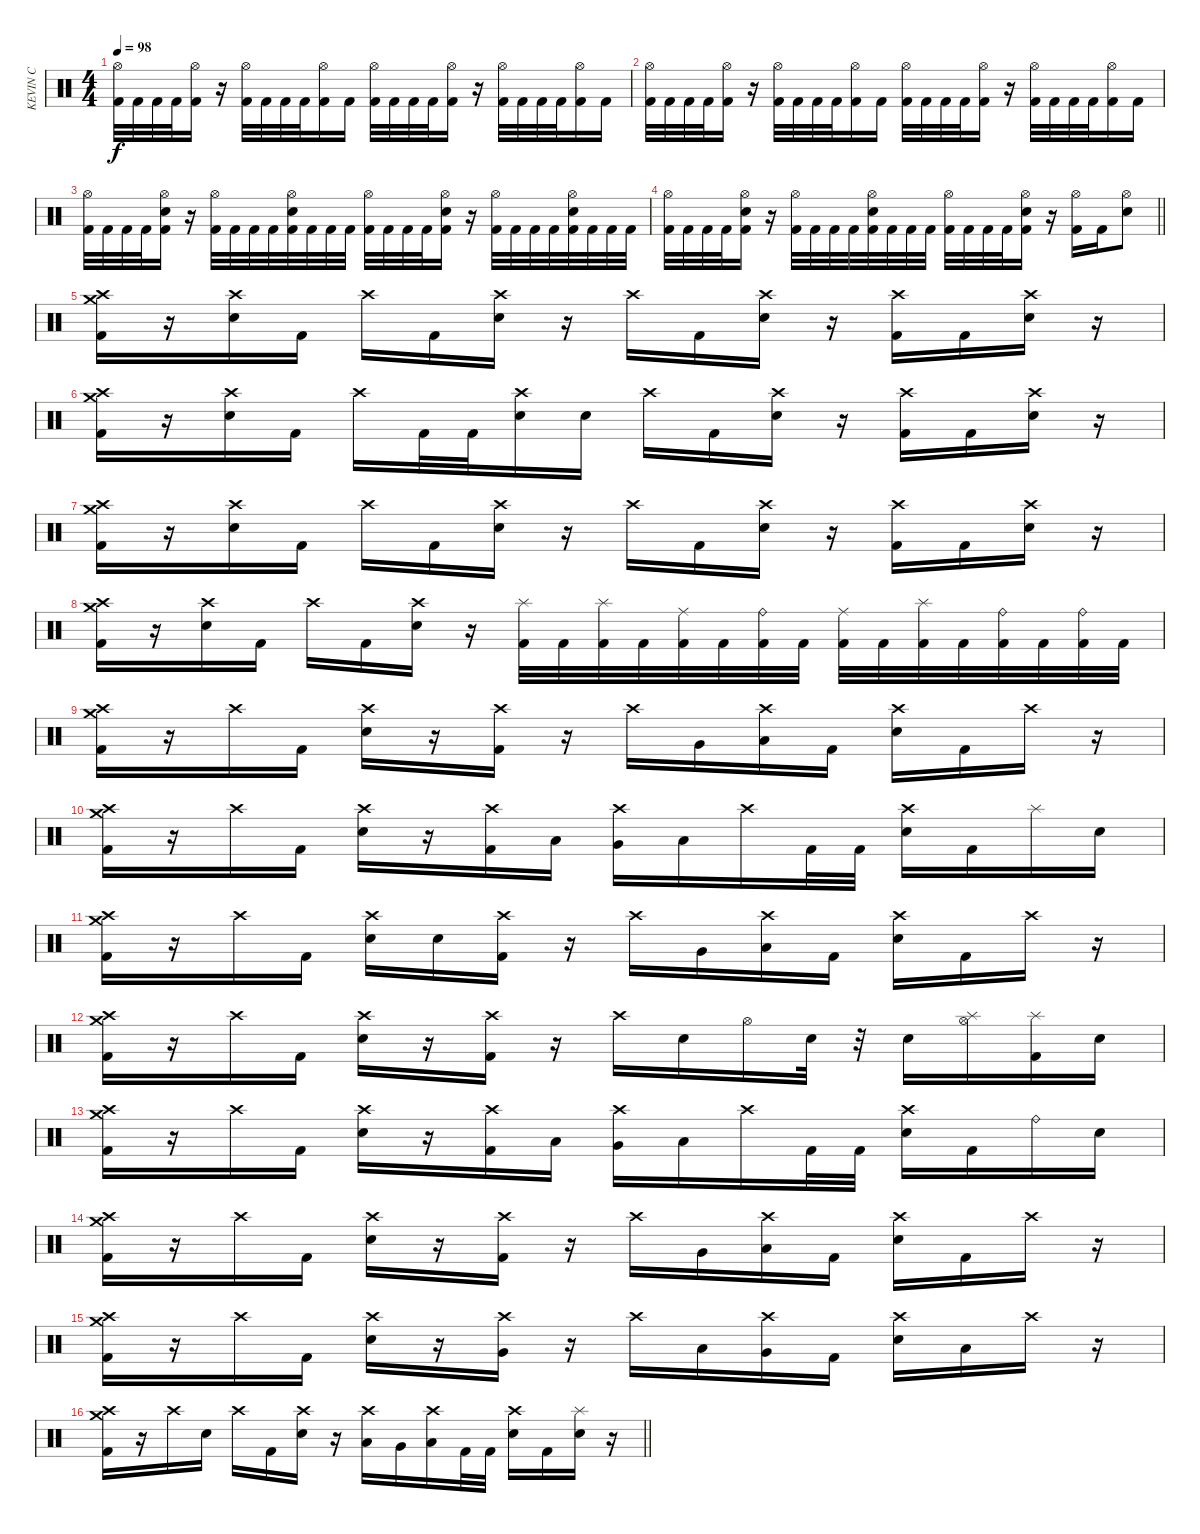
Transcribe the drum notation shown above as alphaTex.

\track ("KEVIN C" "KEVIN C") {instrument percussion}
\staff {score}
\articulation defaults
\ts (4 4)
\tempo 98
\clef neutral
\ks c
("Hi-Hat (open)" "Kick (hit) 2").32{dy f} "Kick (hit) 2".32 "Kick (hit) 2".32 "Kick (hit) 2".32 ("Hi-Hat (open)" "Kick (hit) 2").16 r.16 ("Hi-Hat (open)" "Kick (hit) 2").32 "Kick (hit) 2".32 "Kick (hit) 2".32 "Kick (hit) 2".32 ("Hi-Hat (open)" "Kick (hit) 2").16 "Kick (hit) 2".16 ("Hi-Hat (open)" "Kick (hit) 2").32 "Kick (hit) 2".32 "Kick (hit) 2".32 "Kick (hit) 2".32 ("Hi-Hat (open)" "Kick (hit) 2").16 r.16 ("Hi-Hat (open)" "Kick (hit) 2").32 "Kick (hit) 2".32 "Kick (hit) 2".32 "Kick (hit) 2".32 ("Hi-Hat (open)" "Kick (hit) 2").16 "Kick (hit) 2".16 |
("Hi-Hat (open)" "Kick (hit) 2").32 "Kick (hit) 2".32 "Kick (hit) 2".32 "Kick (hit) 2".32 ("Hi-Hat (open)" "Kick (hit) 2").16 r.16 ("Hi-Hat (open)" "Kick (hit) 2").32 "Kick (hit) 2".32 "Kick (hit) 2".32 "Kick (hit) 2".32 ("Hi-Hat (open)" "Kick (hit) 2").16 "Kick (hit) 2".16 ("Hi-Hat (open)" "Kick (hit) 2").32 "Kick (hit) 2".32 "Kick (hit) 2".32 "Kick (hit) 2".32 ("Hi-Hat (open)" "Kick (hit) 2").16 r.16 ("Hi-Hat (open)" "Kick (hit) 2").32 "Kick (hit) 2".32 "Kick (hit) 2".32 "Kick (hit) 2".32 ("Hi-Hat (open)" "Kick (hit) 2").16 "Kick (hit) 2".16 |
("Hi-Hat (open)" "Kick (hit) 2").32 "Kick (hit) 2".32 "Kick (hit) 2".32 "Kick (hit) 2".32 ("Hi-Hat (open)" "Snare (hit) 2" "Kick (hit) 2").16 r.16 ("Hi-Hat (open)" "Kick (hit) 2").32 "Kick (hit) 2".32 "Kick (hit) 2".32 "Kick (hit) 2".32 ("Hi-Hat (open)" "Snare (hit) 2" "Kick (hit) 2").32 "Kick (hit) 2".32 "Kick (hit) 2".32 "Kick (hit) 2".32 ("Hi-Hat (open)" "Kick (hit) 2").32 "Kick (hit) 2".32 "Kick (hit) 2".32 "Kick (hit) 2".32 ("Hi-Hat (open)" "Snare (hit) 2" "Kick (hit) 2").16 r.16 ("Hi-Hat (open)" "Kick (hit) 2").32 "Kick (hit) 2".32 "Kick (hit) 2".32 "Kick (hit) 2".32 ("Hi-Hat (open)" "Snare (hit) 2" "Kick (hit) 2").32 "Kick (hit) 2".32 "Kick (hit) 2".32 "Kick (hit) 2".32 |
\barLineRight lightlight
("Hi-Hat (open)" "Kick (hit) 2").32 "Kick (hit) 2".32 "Kick (hit) 2".32 "Kick (hit) 2".32 ("Hi-Hat (open)" "Snare (hit) 2" "Kick (hit) 2").16 r.16 ("Hi-Hat (open)" "Kick (hit) 2").32 "Kick (hit) 2".32 "Kick (hit) 2".32 "Kick (hit) 2".32 ("Hi-Hat (open)" "Snare (hit) 2" "Kick (hit) 2").32 "Kick (hit) 2".32 "Kick (hit) 2".32 "Kick (hit) 2".32 ("Hi-Hat (open)" "Kick (hit) 2").32 "Kick (hit) 2".32 "Kick (hit) 2".32 "Kick (hit) 2".32 ("Hi-Hat (open)" "Snare (hit) 2" "Kick (hit) 2").16 r.16 ("Hi-Hat (open)" "Kick (hit) 2").16 "Kick (hit) 2".16 ("Hi-Hat (open)" "Snare (hit) 2").8 |
("Crash high (hit)" "Crash medium (hit)" "Kick (hit) 2").16 r.16 ("Crash high (hit)" "Snare (hit) 2").16 "Kick (hit) 2".16 "Crash high (hit)".16 "Kick (hit) 2".16 ("Crash high (hit)" "Snare (hit) 2").16 r.16 "Crash high (hit)".16 "Kick (hit) 2".16 ("Crash high (hit)" "Snare (hit) 2").16 r.16 ("Crash high (hit)" "Kick (hit) 2").16 "Kick (hit) 2".16 ("Crash high (hit)" "Snare (hit) 2").16 r.16 |
("Crash high (hit)" "Crash medium (hit)" "Kick (hit) 2").16 r.16 ("Crash high (hit)" "Snare (hit) 2").16 "Kick (hit) 2".16 "Crash high (hit)".16 "Kick (hit) 2".32 "Kick (hit) 2".32 ("Crash high (hit)" "Snare (hit) 2").16 "Snare (hit) 2".16 "Crash high (hit)".16 "Kick (hit) 2".16 ("Crash high (hit)" "Snare (hit) 2").16 r.16 ("Crash high (hit)" "Kick (hit) 2").16 "Kick (hit) 2".16 ("Crash high (hit)" "Snare (hit) 2").16 r.16 |
("Crash high (hit)" "Crash medium (hit)" "Kick (hit) 2").16 r.16 ("Crash high (hit)" "Snare (hit) 2").16 "Kick (hit) 2".16 "Crash high (hit)".16 "Kick (hit) 2".16 ("Crash high (hit)" "Snare (hit) 2").16 r.16 "Crash high (hit)".16 "Kick (hit) 2".16 ("Crash high (hit)" "Snare (hit) 2").16 r.16 ("Crash high (hit)" "Kick (hit) 2").16 "Kick (hit) 2".16 ("Crash high (hit)" "Snare (hit) 2").16 r.16 |
("Crash high (hit)" "Crash medium (hit)" "Kick (hit) 2").16 r.16 ("Crash high (hit)" "Snare (hit) 2").16 "Kick (hit) 2".16 "Crash high (hit)".16 "Kick (hit) 2".16 ("Crash high (hit)" "Snare (hit) 2").16 r.16 ("Splash (hit)" "Kick (hit) 2").32 "Kick (hit) 2".32 ("Splash (hit)" "Kick (hit) 2").32 "Kick (hit) 2".32 ("Ride (middle)" "Kick (hit) 2").32 "Kick (hit) 2".32 ("Ride (bell)" "Kick (hit) 2").32 "Kick (hit) 2".32 ("Ride (middle)" "Kick (hit) 2").32 "Kick (hit) 2".32 ("Splash (hit)" "Kick (hit) 2").32 "Kick (hit) 2".32 ("Ride (bell)" "Kick (hit) 2").32 "Kick (hit) 2".32 ("Ride (bell)" "Kick (hit) 2").32 "Kick (hit) 2".32 |
("Crash high (hit)" "Crash medium (hit)" "Kick (hit) 2").16 r.16 "Crash high (hit)".16 "Kick (hit) 2".16 ("Crash high (hit)" "Snare (hit) 2").16 r.16 ("Crash high (hit)" "Kick (hit) 2").16 r.16 "Crash high (hit)".16 "Very Low Tom (hit)".16 ("Crash high (hit)" "Low Floor Tom (hit)").16 "Kick (hit) 2".16 ("Crash high (hit)" "Snare (hit) 2").16 "Kick (hit) 2".16 "Crash high (hit)".16 r.16 |
("Crash high (hit)" "Crash medium (hit)" "Kick (hit) 2").16 r.16 "Crash high (hit)".16 "Kick (hit) 2".16 ("Crash high (hit)" "Snare (hit) 2").16 r.16 ("Crash high (hit)" "Kick (hit) 2").16 "Low Tom (hit)".16 ("Crash high (hit)" "Very Low Tom (hit)").16 "Low Floor Tom (hit)".16 "Crash high (hit)".16 "Kick (hit) 2".32 "Kick (hit) 2".32 ("Crash high (hit)" "Snare (hit) 2").16 "Kick (hit) 2".16 "Splash (hit)".16 "Snare (hit) 2".16 |
("Crash high (hit)" "Crash medium (hit)" "Kick (hit) 2").16 r.16 "Crash high (hit)".16 "Kick (hit) 2".16 ("Crash high (hit)" "Snare (hit) 2").16 "Snare (hit) 2".16 ("Crash high (hit)" "Kick (hit) 2").16 r.16 "Crash high (hit)".16 "Very Low Tom (hit)".16 ("Crash high (hit)" "Low Floor Tom (hit)").16 "Kick (hit) 2".16 ("Crash high (hit)" "Snare (hit) 2").16 "Kick (hit) 2".16 "Crash high (hit)".16 r.16 |
("Crash high (hit)" "Crash medium (hit)" "Kick (hit) 2").16 r.16 "Crash high (hit)".16 "Kick (hit) 2".16 ("Crash high (hit)" "Snare (hit) 2").16 r.16 ("Crash high (hit)" "Kick (hit) 2").16 r.16 "Crash high (hit)".16 "Snare (hit) 2".16 "Hi-Hat (open)".16 "Snare (hit) 2".32 r.32 "Snare (hit) 2".16 ("Hi-Hat (open)" "Splash (hit)").16 ("Splash (hit)" "Kick (hit) 2").16 "Snare (hit) 2".16 |
("Crash high (hit)" "Crash medium (hit)" "Kick (hit) 2").16 r.16 "Crash high (hit)".16 "Kick (hit) 2".16 ("Crash high (hit)" "Snare (hit) 2").16 r.16 ("Crash high (hit)" "Kick (hit) 2").16 "Low Tom (hit)".16 ("Crash high (hit)" "Very Low Tom (hit)").16 "Low Floor Tom (hit)".16 "Crash high (hit)".16 "Kick (hit) 2".32 "Kick (hit) 2".32 ("Crash high (hit)" "Snare (hit) 2").16 "Kick (hit) 2".16 "Ride (bell)".16 "Snare (hit) 2".16 |
("Crash high (hit)" "Crash medium (hit)" "Kick (hit) 2").16 r.16 "Crash high (hit)".16 "Kick (hit) 2".16 ("Crash high (hit)" "Snare (hit) 2").16 r.16 ("Crash high (hit)" "Kick (hit) 2").16 r.16 "Crash high (hit)".16 "Very Low Tom (hit)".16 ("Crash high (hit)" "Low Floor Tom (hit)").16 "Kick (hit) 2".16 ("Crash high (hit)" "Snare (hit) 2").16 "Kick (hit) 2".16 "Crash high (hit)".16 r.16 |
("Crash high (hit)" "Crash medium (hit)" "Kick (hit) 2").16 r.16 "Crash high (hit)".16 "Kick (hit) 2".16 ("Crash high (hit)" "Snare (hit) 2").16 r.16 ("Crash high (hit)" "Very Low Tom (hit)").16 r.16 "Crash high (hit)".16 "Low Tom (hit)".16 ("Crash high (hit)" "Very Low Tom (hit)").16 "Kick (hit) 2".16 ("Crash high (hit)" "Snare (hit) 2").16 "Low Floor Tom (hit)".16 "Crash high (hit)".16 r.16 |
\barLineRight lightlight
("Crash high (hit)" "Crash medium (hit)" "Kick (hit) 2").16 r.16 "Crash high (hit)".16 "Snare (hit) 2".16 "Crash high (hit)".16 "Kick (hit) 2".16 ("Crash high (hit)" "Snare (hit) 2").16 r.16 ("Crash high (hit)" "Low Tom (hit)").16 "Very Low Tom (hit)".16 ("Crash high (hit)" "Low Floor Tom (hit)").16 "Kick (hit) 2".32 "Kick (hit) 2".32 ("Crash high (hit)" "Snare (hit) 2").16 "Kick (hit) 2".16 ("Splash (hit)" "Snare (hit) 2").16 r.16
